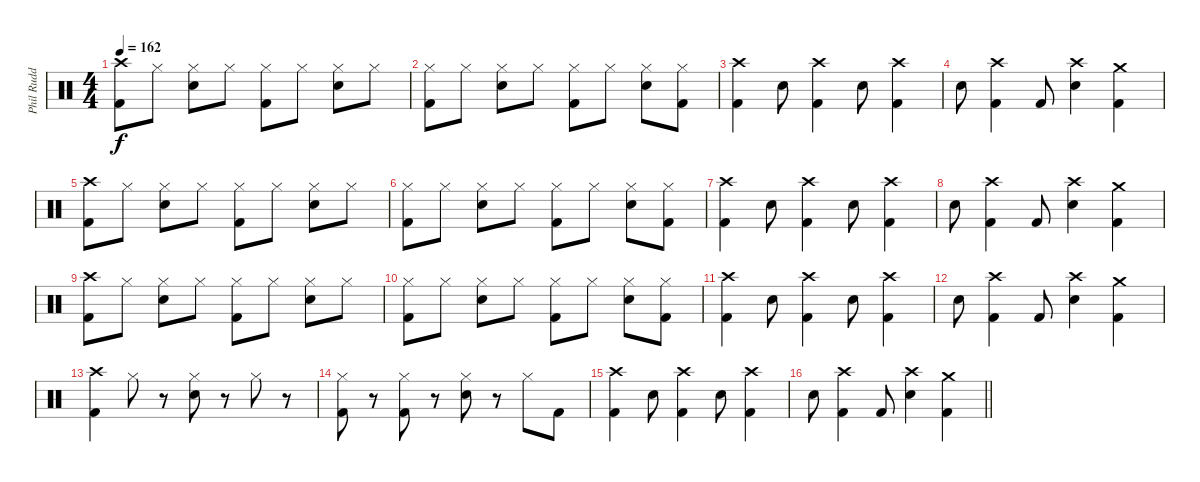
\track ("Phil Rudd" "Phil Rudd") {instrument percussion}
\staff {score}
\articulation defaults
\ts (4 4)
\tempo 162
\clef neutral
\ks c
("Crash high (hit)" "Kick (hit) 2").8{dy f} "Hi-Hat (closed)".8 ("Hi-Hat (closed)" "Snare (hit) 2").8 "Hi-Hat (closed)".8 ("Hi-Hat (closed)" "Kick (hit) 2").8 "Hi-Hat (closed)".8 ("Hi-Hat (closed)" "Snare (hit) 2").8 "Hi-Hat (closed)".8 |
("Hi-Hat (closed)" "Kick (hit) 2").8 "Hi-Hat (closed)".8 ("Hi-Hat (closed)" "Snare (hit) 2").8 "Hi-Hat (closed)".8 ("Hi-Hat (closed)" "Kick (hit) 2").8 "Hi-Hat (closed)".8 ("Hi-Hat (closed)" "Snare (hit) 2").8 ("Hi-Hat (closed)" "Kick (hit) 2").8 |
("Crash high (hit)" "Kick (hit) 2").4 "Snare (hit) 2".8 ("Crash high (hit)" "Kick (hit) 2").4 "Snare (hit) 2".8 ("Crash high (hit)" "Kick (hit) 2").4 |
"Snare (hit) 2".8 ("Crash high (hit)" "Kick (hit) 2").4 "Kick (hit) 2".8 ("Crash high (hit)" "Snare (hit) 2").4 ("Crash medium (hit)" "Kick (hit) 2").4 |
("Crash high (hit)" "Kick (hit) 2").8 "Hi-Hat (closed)".8 ("Hi-Hat (closed)" "Snare (hit) 2").8 "Hi-Hat (closed)".8 ("Hi-Hat (closed)" "Kick (hit) 2").8 "Hi-Hat (closed)".8 ("Hi-Hat (closed)" "Snare (hit) 2").8 "Hi-Hat (closed)".8 |
("Hi-Hat (closed)" "Kick (hit) 2").8 "Hi-Hat (closed)".8 ("Hi-Hat (closed)" "Snare (hit) 2").8 "Hi-Hat (closed)".8 ("Hi-Hat (closed)" "Kick (hit) 2").8 "Hi-Hat (closed)".8 ("Hi-Hat (closed)" "Snare (hit) 2").8 ("Hi-Hat (closed)" "Kick (hit) 2").8 |
("Crash high (hit)" "Kick (hit) 2").4 "Snare (hit) 2".8 ("Crash high (hit)" "Kick (hit) 2").4 "Snare (hit) 2".8 ("Crash high (hit)" "Kick (hit) 2").4 |
"Snare (hit) 2".8 ("Crash high (hit)" "Kick (hit) 2").4 "Kick (hit) 2".8 ("Crash high (hit)" "Snare (hit) 2").4 ("Crash medium (hit)" "Kick (hit) 2").4 |
("Crash high (hit)" "Kick (hit) 2").8 "Hi-Hat (closed)".8 ("Hi-Hat (closed)" "Snare (hit) 2").8 "Hi-Hat (closed)".8 ("Hi-Hat (closed)" "Kick (hit) 2").8 "Hi-Hat (closed)".8 ("Hi-Hat (closed)" "Snare (hit) 2").8 "Hi-Hat (closed)".8 |
("Hi-Hat (closed)" "Kick (hit) 2").8 "Hi-Hat (closed)".8 ("Hi-Hat (closed)" "Snare (hit) 2").8 "Hi-Hat (closed)".8 ("Hi-Hat (closed)" "Kick (hit) 2").8 "Hi-Hat (closed)".8 ("Hi-Hat (closed)" "Snare (hit) 2").8 ("Hi-Hat (closed)" "Kick (hit) 2").8 |
("Crash high (hit)" "Kick (hit) 2").4 "Snare (hit) 2".8 ("Crash high (hit)" "Kick (hit) 2").4 "Snare (hit) 2".8 ("Crash high (hit)" "Kick (hit) 2").4 |
"Snare (hit) 2".8 ("Crash high (hit)" "Kick (hit) 2").4 "Kick (hit) 2".8 ("Crash high (hit)" "Snare (hit) 2").4 ("Crash medium (hit)" "Kick (hit) 2").4 |
("Crash high (hit)" "Kick (hit) 2").4 "Hi-Hat (closed)".8 r.8 ("Hi-Hat (closed)" "Snare (hit) 2").8 r.8 "Hi-Hat (closed)".8 r.8 |
("Hi-Hat (closed)" "Kick (hit) 2").8 r.8 ("Hi-Hat (closed)" "Kick (hit) 2").8 r.8 ("Hi-Hat (closed)" "Snare (hit) 2").8 r.8 "Hi-Hat (closed)".8 "Kick (hit) 2".8 |
("Crash high (hit)" "Kick (hit) 2").4 "Snare (hit) 2".8 ("Crash high (hit)" "Kick (hit) 2").4 "Snare (hit) 2".8 ("Crash high (hit)" "Kick (hit) 2").4 |
\barLineRight lightlight "Snare (hit) 2".8
("Crash high (hit)" "Kick (hit) 2").4 "Kick (hit) 2".8 ("Crash high (hit)" "Snare (hit) 2").4 ("Crash medium (hit)" "Kick (hit) 2").4
